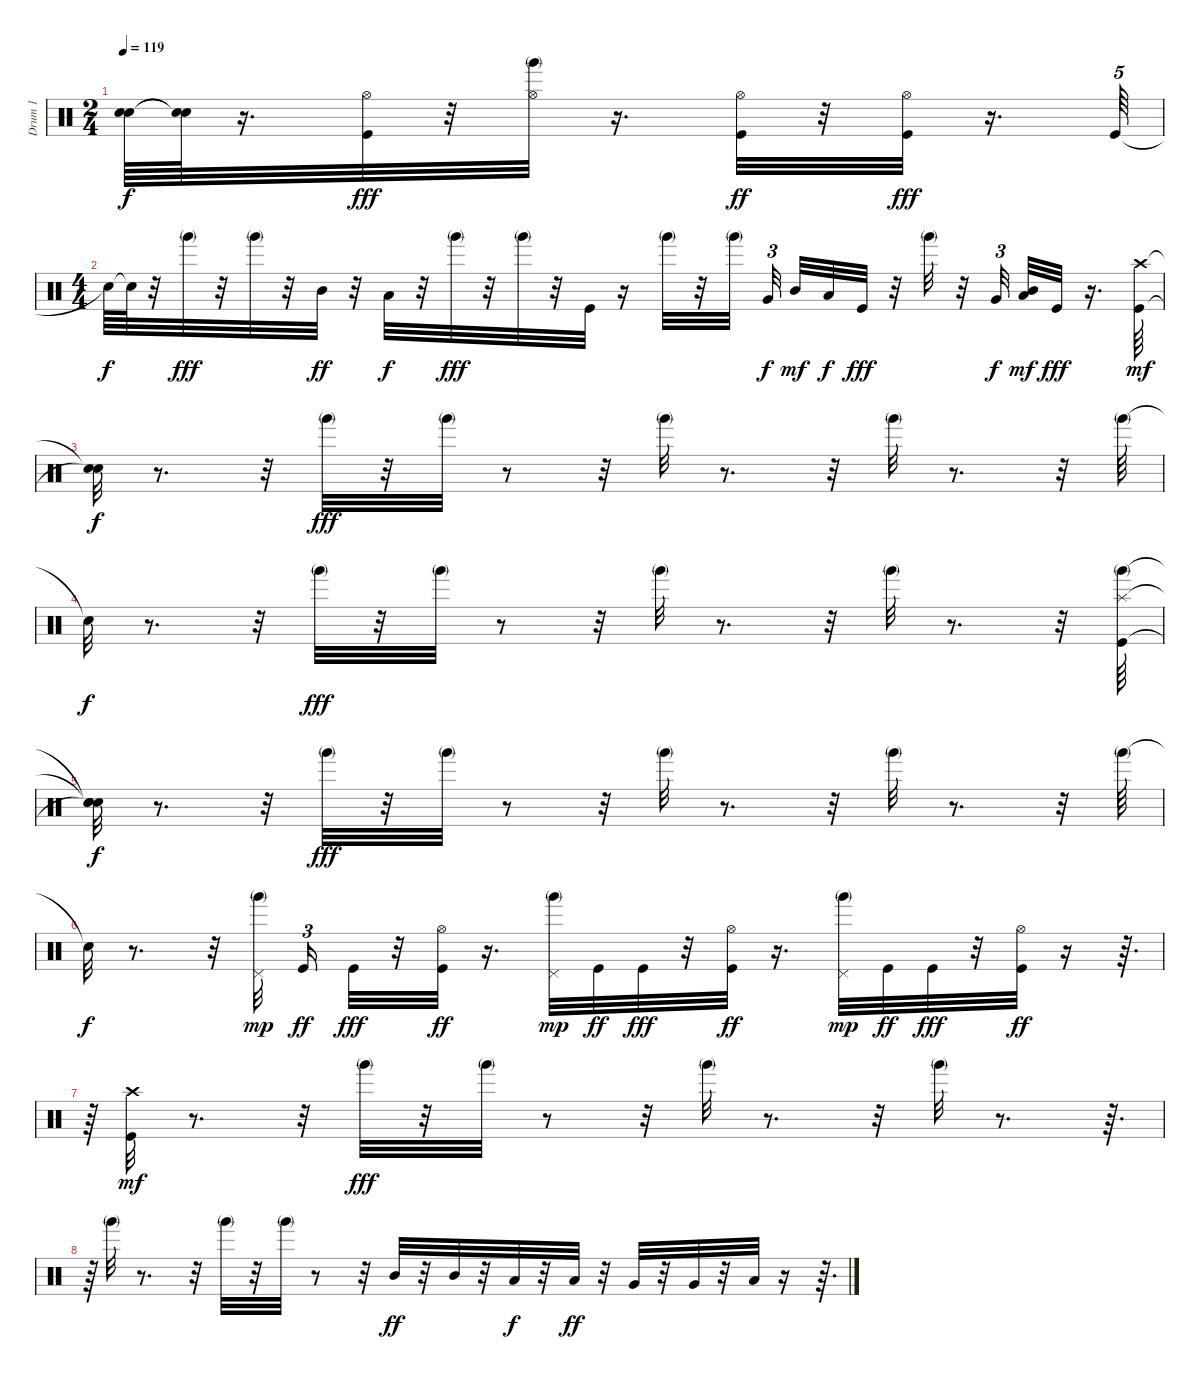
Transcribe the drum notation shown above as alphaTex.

\track ("Drum 1                          " "Drum 1    ") {instrument percussion}
\staff {score}
\articulation defaults
\ts (2 4)
\tempo 119
\clef neutral
\ks c
("Snare (hit)"{t} "Snare (hit)"{t}).64{dy f} ("Snare (hit)"{t} "Snare (hit)"{t}).64 r.16{d} ("Hi-Hat (open)" "Kick (hit)").32{dy fff} r.32 ("Hand (mute) 2" "Hi-Hat (open)").32 r.16{d} ("Hi-Hat (open)" "Kick (hit)").32{dy ff} r.32 ("Hi-Hat (open)" "Kick (hit)").32{dy fff} r.16{d} "Kick (hit)".64{tu (5 4)} |
\ts (4 4)
"Snare (hit)"{t}.64{dy f} "Snare (hit)"{t}.64 r.32 "Hand (mute) 2".32{dy fff} r.32 "Hand (mute) 2".32 r.32 "Mid Tom (hit)".32{dy ff} r.32 "Low Floor Tom (hit)".32{dy f} r.32 "Hand (mute) 2".32{dy fff} r.32 "Hand (mute) 2".32 r.32 "Kick (hit)".32 r.16 "Hand (mute) 2".32 r.32 "Hand (mute) 2".32 "Very Low Tom (hit)".32{tu (3 2) dy f} "Mid Tom (hit)".32{dy mf} "Low Floor Tom (hit)".32{dy f} "Kick (hit)".32{dy fff} r.32 "Hand (mute) 2".32 r.32 "Very Low Tom (hit)".32{tu (3 2) dy f} ("Mid Tom (hit)" "Low Floor Tom (hit)").32{dy mf} "Kick (hit)".32{dy fff} r.16{d} ("Kick (hit)" "Crash high (hit)").64{dy mf} |
("Snare (hit)"{t} "Snare (hit)"{t}).32{dy f} r.8{d} r.32 "Hand (mute) 2".32{dy fff} r.32 "Hand (mute) 2".32 r.8 r.32 "Hand (mute) 2".32 r.8{d} r.32 "Hand (mute) 2".32 r.8{d} r.32 "Hand (mute) 2".64 |
"Snare (hit)"{t}.32{dy f} r.8{d} r.32 "Hand (mute) 2".32{dy fff} r.32 "Hand (mute) 2".32 r.8 r.32 "Hand (mute) 2".32 r.8{d} r.32 "Hand (mute) 2".32 r.8{d} r.32 ("Kick (hit)" "Splash (hit)" "Hand (mute) 2").64 |
("Snare (hit)"{t} "Snare (hit)"{t} "Snare (hit)"{t}).32{dy f} r.8{d} r.32 "Hand (mute) 2".32{dy fff} r.32 "Hand (mute) 2".32 r.8 r.32 "Hand (mute) 2".32 r.8{d} r.32 "Hand (mute) 2".32 r.8{d} r.32 "Hand (mute) 2".64 |
"Snare (hit)"{t}.32{dy f} r.8{d} r.32 ("Hand (mute) 2" "Pedal Hi-Hat (hit)").32{dy mp} "Kick (hit)".16{tu (3 2) dy ff} "Kick (hit)".32{dy fff} r.32 ("Kick (hit)" "Hi-Hat (open)").32{dy ff} r.16{d} ("Hand (mute) 2" "Pedal Hi-Hat (hit)").32{dy mp} "Kick (hit)".32{dy ff} "Kick (hit)".32{dy fff} r.32 ("Kick (hit)" "Hi-Hat (open)").32{dy ff} r.16{d} ("Hand (mute) 2" "Pedal Hi-Hat (hit)").32{dy mp} "Kick (hit)".32{dy ff} "Kick (hit)".32{dy fff} r.32 ("Kick (hit)" "Hi-Hat (open)").32{dy ff} r.16 r.64{d} |
r.64 ("Kick (hit)" "Crash high (hit)").32{dy mf} r.8{d} r.32 "Hand (mute) 2".32{dy fff} r.32 "Hand (mute) 2".32 r.8 r.32 "Hand (mute) 2".32 r.8{d} r.32 "Hand (mute) 2".32 r.8{d} r.64{d} |
r.64 "Hand (mute) 2".32 r.8{d} r.32 "Hand (mute) 2".32 r.32 "Hand (mute) 2".32 r.8 r.32 "Mid Tom (hit)".32{dy ff} r.32 "Mid Tom (hit)".32 r.32 "Low Tom (hit)".32{dy f} r.32 "Low Tom (hit)".32{dy ff} r.32 "Very Low Tom (hit)".32 r.32 "Very Low Tom (hit)".32 r.32 "Low Floor Tom (hit)".32 r.16 r.64{d}
